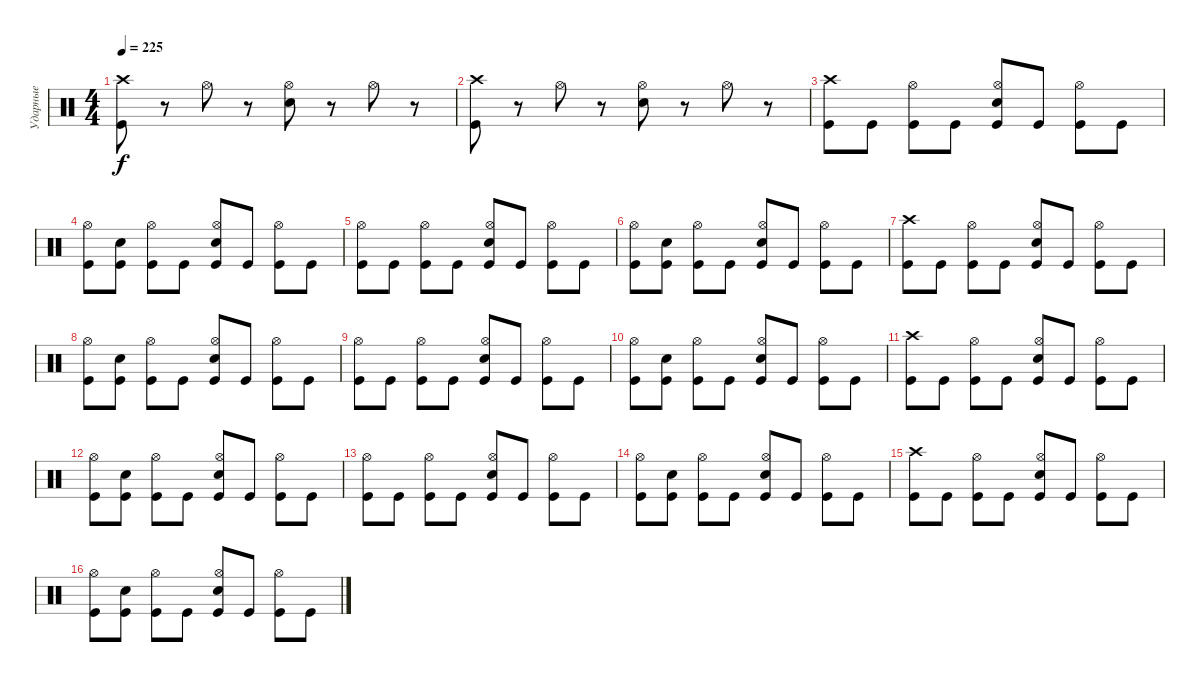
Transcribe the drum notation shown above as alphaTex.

\track ("Ударные" "Ударные") {instrument percussion}
\staff {score}
\articulation defaults
\ts (4 4)
\tempo 225
\clef neutral
\ks c
("Crash high (hit)" "Kick (hit)").8{dy f} r.8 "Hi-Hat (open)".8 r.8 ("Hi-Hat (open)" "Snare (hit) 2").8 r.8 "Hi-Hat (open)".8 r.8 |
("Crash high (hit)" "Kick (hit)").8 r.8 "Hi-Hat (open)".8 r.8 ("Hi-Hat (open)" "Snare (hit) 2").8 r.8 "Hi-Hat (open)".8 r.8 |
("Crash high (hit)" "Kick (hit)").8 "Kick (hit)".8 ("Hi-Hat (open)" "Kick (hit)").8 "Kick (hit)".8 ("Hi-Hat (open)" "Snare (hit) 2" "Kick (hit)").8 "Kick (hit)".8 ("Hi-Hat (open)" "Kick (hit)").8 "Kick (hit)".8 |
("Hi-Hat (open)" "Kick (hit)").8 ("Snare (hit) 2" "Kick (hit)").8 ("Hi-Hat (open)" "Kick (hit)").8 "Kick (hit)".8 ("Hi-Hat (open)" "Snare (hit) 2" "Kick (hit)").8 "Kick (hit)".8 ("Hi-Hat (open)" "Kick (hit)").8 "Kick (hit)".8 |
("Hi-Hat (open)" "Kick (hit)").8 "Kick (hit)".8 ("Hi-Hat (open)" "Kick (hit)").8 "Kick (hit)".8 ("Hi-Hat (open)" "Snare (hit) 2" "Kick (hit)").8 "Kick (hit)".8 ("Hi-Hat (open)" "Kick (hit)").8 "Kick (hit)".8 |
("Hi-Hat (open)" "Kick (hit)").8 ("Snare (hit) 2" "Kick (hit)").8 ("Hi-Hat (open)" "Kick (hit)").8 "Kick (hit)".8 ("Hi-Hat (open)" "Snare (hit) 2" "Kick (hit)").8 "Kick (hit)".8 ("Hi-Hat (open)" "Kick (hit)").8 "Kick (hit)".8 |
("Crash high (hit)" "Kick (hit)").8 "Kick (hit)".8 ("Hi-Hat (open)" "Kick (hit)").8 "Kick (hit)".8 ("Hi-Hat (open)" "Snare (hit) 2" "Kick (hit)").8 "Kick (hit)".8 ("Hi-Hat (open)" "Kick (hit)").8 "Kick (hit)".8 |
("Hi-Hat (open)" "Kick (hit)").8 ("Snare (hit) 2" "Kick (hit)").8 ("Hi-Hat (open)" "Kick (hit)").8 "Kick (hit)".8 ("Hi-Hat (open)" "Snare (hit) 2" "Kick (hit)").8 "Kick (hit)".8 ("Hi-Hat (open)" "Kick (hit)").8 "Kick (hit)".8 |
("Hi-Hat (open)" "Kick (hit)").8 "Kick (hit)".8 ("Hi-Hat (open)" "Kick (hit)").8 "Kick (hit)".8 ("Hi-Hat (open)" "Snare (hit) 2" "Kick (hit)").8 "Kick (hit)".8 ("Hi-Hat (open)" "Kick (hit)").8 "Kick (hit)".8 |
("Hi-Hat (open)" "Kick (hit)").8 ("Snare (hit) 2" "Kick (hit)").8 ("Hi-Hat (open)" "Kick (hit)").8 "Kick (hit)".8 ("Hi-Hat (open)" "Snare (hit) 2" "Kick (hit)").8 "Kick (hit)".8 ("Hi-Hat (open)" "Kick (hit)").8 "Kick (hit)".8 |
("Crash high (hit)" "Kick (hit)").8 "Kick (hit)".8 ("Hi-Hat (open)" "Kick (hit)").8 "Kick (hit)".8 ("Hi-Hat (open)" "Snare (hit) 2" "Kick (hit)").8 "Kick (hit)".8 ("Hi-Hat (open)" "Kick (hit)").8 "Kick (hit)".8 |
("Hi-Hat (open)" "Kick (hit)").8 ("Snare (hit) 2" "Kick (hit)").8 ("Hi-Hat (open)" "Kick (hit)").8 "Kick (hit)".8 ("Hi-Hat (open)" "Snare (hit) 2" "Kick (hit)").8 "Kick (hit)".8 ("Hi-Hat (open)" "Kick (hit)").8 "Kick (hit)".8 |
("Hi-Hat (open)" "Kick (hit)").8 "Kick (hit)".8 ("Hi-Hat (open)" "Kick (hit)").8 "Kick (hit)".8 ("Hi-Hat (open)" "Snare (hit) 2" "Kick (hit)").8 "Kick (hit)".8 ("Hi-Hat (open)" "Kick (hit)").8 "Kick (hit)".8 |
("Hi-Hat (open)" "Kick (hit)").8 ("Snare (hit) 2" "Kick (hit)").8 ("Hi-Hat (open)" "Kick (hit)").8 "Kick (hit)".8 ("Hi-Hat (open)" "Snare (hit) 2" "Kick (hit)").8 "Kick (hit)".8 ("Hi-Hat (open)" "Kick (hit)").8 "Kick (hit)".8 |
("Crash high (hit)" "Kick (hit)").8 "Kick (hit)".8 ("Hi-Hat (open)" "Kick (hit)").8 "Kick (hit)".8 ("Hi-Hat (open)" "Snare (hit) 2" "Kick (hit)").8 "Kick (hit)".8 ("Hi-Hat (open)" "Kick (hit)").8 "Kick (hit)".8 |
("Hi-Hat (open)" "Kick (hit)").8 ("Snare (hit) 2" "Kick (hit)").8 ("Hi-Hat (open)" "Kick (hit)").8 "Kick (hit)".8 ("Hi-Hat (open)" "Snare (hit) 2" "Kick (hit)").8 "Kick (hit)".8 ("Hi-Hat (open)" "Kick (hit)").8 "Kick (hit)".8
